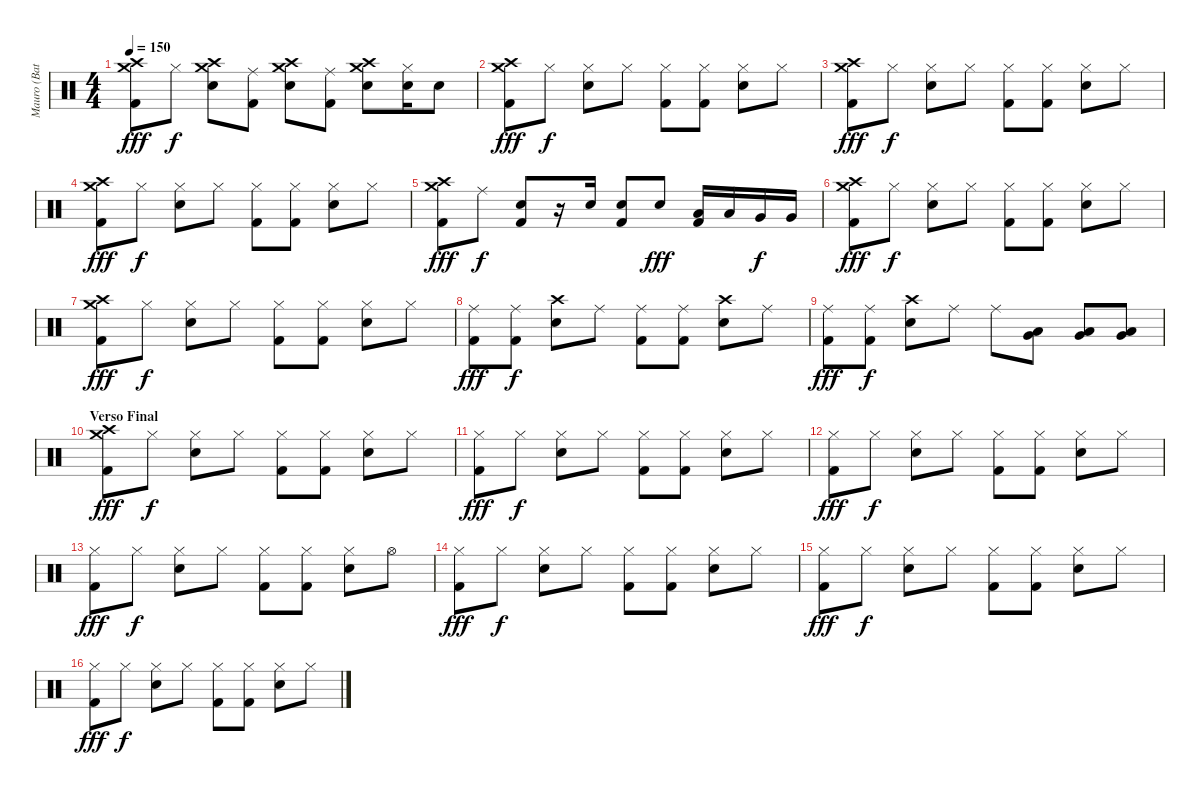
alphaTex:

\track ("Mauro (Bateria)" "Mauro (Bat") {instrument percussion}
\staff {score}
\articulation defaults
\ts (4 4)
\tempo 150
\clef neutral
\ks c
("Crash high (hit)" "Crash medium (hit)" "Kick (hit) 2").8{dy fff} "Hi-Hat (closed)".8{dy f} ("Crash high (hit)" "Snare (hit) 2" "Crash medium (hit)").8 ("Ride (middle)" "Kick (hit) 2").8 ("Crash high (hit)" "Snare (hit) 2" "Crash medium (hit)").8 ("Ride (middle)" "Kick (hit) 2").8 ("Crash high (hit)" "Snare (hit) 2" "Crash medium (hit)").8 ("Hi-Hat (closed)" "Snare (hit) 2").16 "Snare (hit) 2".8 |
("Crash high (hit)" "Crash medium (hit)" "Kick (hit) 2").8{dy fff} "Hi-Hat (closed)".8{dy f} ("Hi-Hat (closed)" "Snare (hit) 2").8 "Hi-Hat (closed)".8 ("Hi-Hat (closed)" "Kick (hit) 2").8 ("Hi-Hat (closed)" "Kick (hit) 2").8 ("Hi-Hat (closed)" "Snare (hit) 2").8 "Hi-Hat (closed)".8 |
("Crash high (hit)" "Crash medium (hit)" "Kick (hit) 2").8{dy fff} "Hi-Hat (closed)".8{dy f} ("Hi-Hat (closed)" "Snare (hit) 2").8 "Hi-Hat (closed)".8 ("Hi-Hat (closed)" "Kick (hit) 2").8 ("Hi-Hat (closed)" "Kick (hit) 2").8 ("Hi-Hat (closed)" "Snare (hit) 2").8 "Hi-Hat (closed)".8 |
("Crash high (hit)" "Crash medium (hit)" "Kick (hit) 2").8{dy fff} "Hi-Hat (closed)".8{dy f} ("Hi-Hat (closed)" "Snare (hit) 2").8 "Hi-Hat (closed)".8 ("Hi-Hat (closed)" "Kick (hit) 2").8 ("Hi-Hat (closed)" "Kick (hit) 2").8 ("Hi-Hat (closed)" "Snare (hit) 2").8 "Hi-Hat (closed)".8 |
("Crash high (hit)" "Crash medium (hit)" "Kick (hit) 2").8{dy fff} "Ride (middle)".8{dy f} ("Snare (hit) 2" "Kick (hit) 2").8 r.16 "Snare (hit) 2".16 ("Snare (hit) 2" "Kick (hit) 2").8 "Snare (hit) 2".8{dy fff} ("Low Tom (hit)" "Kick (hit) 2").16 "Low Tom (hit)".16 "Very Low Tom (hit)".16{dy f} "Very Low Tom (hit)".16 |
("Crash high (hit)" "Crash medium (hit)" "Kick (hit) 2").8{dy fff} "Hi-Hat (closed)".8{dy f} ("Hi-Hat (closed)" "Snare (hit) 2").8 "Hi-Hat (closed)".8 ("Hi-Hat (closed)" "Kick (hit) 2").8 ("Hi-Hat (closed)" "Kick (hit) 2").8 ("Hi-Hat (closed)" "Snare (hit) 2").8 "Hi-Hat (closed)".8 |
("Crash high (hit)" "Crash medium (hit)" "Kick (hit) 2").8{dy fff} "Hi-Hat (closed)".8{dy f} ("Hi-Hat (closed)" "Snare (hit) 2").8 "Hi-Hat (closed)".8 ("Hi-Hat (closed)" "Kick (hit) 2").8 ("Hi-Hat (closed)" "Kick (hit) 2").8 ("Hi-Hat (closed)" "Snare (hit) 2").8 "Hi-Hat (closed)".8 |
("Ride (middle)" "Kick (hit) 2").8{dy fff} ("Ride (middle)" "Kick (hit) 2").8{dy f} ("Crash high (hit)" "Snare (hit) 2").8 "Ride (middle)".8 ("Ride (middle)" "Kick (hit) 2").8 ("Ride (middle)" "Kick (hit) 2").8 ("Crash high (hit)" "Snare (hit) 2").8 "Ride (middle)".8 |
("Ride (middle)" "Kick (hit) 2").8{dy fff} ("Ride (middle)" "Kick (hit) 2").8{dy f} ("Crash high (hit)" "Snare (hit) 2").8 "Ride (middle)".8 "Ride (middle)".8 ("Low Tom (hit)" "Very Low Tom (hit)").8 ("Low Tom (hit)" "Very Low Tom (hit)").8 ("Low Tom (hit)" "Very Low Tom (hit)").8 |
\section ("" "Verso Final")
("Crash high (hit)" "Crash medium (hit)" "Kick (hit) 2").8{dy fff} "Hi-Hat (closed)".8{dy f} ("Hi-Hat (closed)" "Snare (hit) 2").8 "Hi-Hat (closed)".8 ("Hi-Hat (closed)" "Kick (hit) 2").8 ("Hi-Hat (closed)" "Kick (hit) 2").8 ("Hi-Hat (closed)" "Snare (hit) 2").8 "Hi-Hat (closed)".8 |
("Hi-Hat (closed)" "Kick (hit) 2").8{dy fff} "Hi-Hat (closed)".8{dy f} ("Hi-Hat (closed)" "Snare (hit) 2").8 "Hi-Hat (closed)".8 ("Hi-Hat (closed)" "Kick (hit) 2").8 ("Hi-Hat (closed)" "Kick (hit) 2").8 ("Hi-Hat (closed)" "Snare (hit) 2").8 "Hi-Hat (closed)".8 |
("Hi-Hat (closed)" "Kick (hit) 2").8{dy fff} "Hi-Hat (closed)".8{dy f} ("Hi-Hat (closed)" "Snare (hit) 2").8 "Hi-Hat (closed)".8 ("Hi-Hat (closed)" "Kick (hit) 2").8 ("Hi-Hat (closed)" "Kick (hit) 2").8 ("Hi-Hat (closed)" "Snare (hit) 2").8 "Hi-Hat (closed)".8 |
("Hi-Hat (closed)" "Kick (hit) 2").8{dy fff} "Hi-Hat (closed)".8{dy f} ("Hi-Hat (closed)" "Snare (hit) 2").8 "Hi-Hat (closed)".8 ("Hi-Hat (closed)" "Kick (hit) 2").8 ("Hi-Hat (closed)" "Kick (hit) 2").8 ("Hi-Hat (closed)" "Snare (hit) 2").8 "Hi-Hat (open)".8 |
("Hi-Hat (closed)" "Kick (hit) 2").8{dy fff} "Hi-Hat (closed)".8{dy f} ("Hi-Hat (closed)" "Snare (hit) 2").8 "Hi-Hat (closed)".8 ("Hi-Hat (closed)" "Kick (hit) 2").8 ("Hi-Hat (closed)" "Kick (hit) 2").8 ("Hi-Hat (closed)" "Snare (hit) 2").8 "Hi-Hat (closed)".8 |
("Hi-Hat (closed)" "Kick (hit) 2").8{dy fff} "Hi-Hat (closed)".8{dy f} ("Hi-Hat (closed)" "Snare (hit) 2").8 "Hi-Hat (closed)".8 ("Hi-Hat (closed)" "Kick (hit) 2").8 ("Hi-Hat (closed)" "Kick (hit) 2").8 ("Hi-Hat (closed)" "Snare (hit) 2").8 "Hi-Hat (closed)".8 |
("Hi-Hat (closed)" "Kick (hit) 2").8{dy fff} "Hi-Hat (closed)".8{dy f} ("Hi-Hat (closed)" "Snare (hit) 2").8 "Hi-Hat (closed)".8 ("Hi-Hat (closed)" "Kick (hit) 2").8 ("Hi-Hat (closed)" "Kick (hit) 2").8 ("Hi-Hat (closed)" "Snare (hit) 2").8 "Hi-Hat (closed)".8
